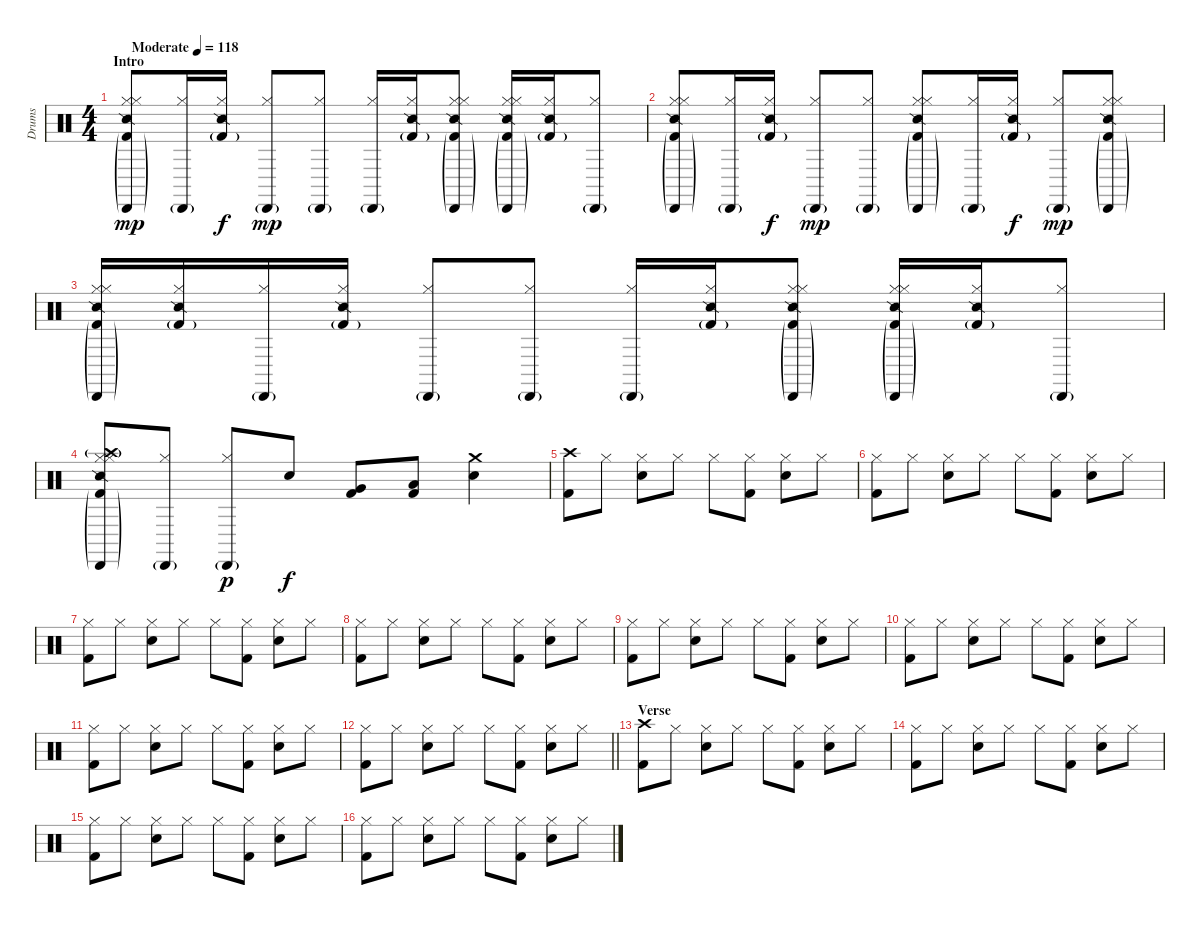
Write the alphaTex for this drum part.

\track ("Drums" "Drums") {instrument percussion}
\staff {score}
\articulation defaults
\ts (4 4)
\section ("" "Intro")
\tempo (118 "Moderate")
\clef neutral
\ks c
("Hi-Hat (closed)" "Cabasa (hit)"{g} "Kick (hit) 2"{g} "Hi-Hat (closed)" "Snare (side stick) 2").8{dy mp} ("Hi-Hat (closed)" "Cabasa (hit)"{g}).16 ("Kick (hit) 2"{g} "Hi-Hat (closed)" "Snare (side stick) 2").16{dy f} ("Hi-Hat (closed)" "Cabasa (hit)"{g}).8{dy mp} ("Hi-Hat (closed)" "Cabasa (hit)"{g}).8 ("Hi-Hat (closed)" "Cabasa (hit)"{g}).16 ("Kick (hit) 2"{g} "Hi-Hat (closed)" "Snare (side stick) 2").16 ("Hi-Hat (closed)" "Cabasa (hit)"{g} "Kick (hit) 2"{g} "Hi-Hat (closed)" "Snare (side stick) 2").8 ("Hi-Hat (closed)" "Cabasa (hit)"{g} "Kick (hit) 2"{g} "Hi-Hat (closed)" "Snare (side stick) 2").16 ("Kick (hit) 2"{g} "Hi-Hat (closed)" "Snare (side stick) 2").16 ("Hi-Hat (closed)" "Cabasa (hit)"{g}).8 |
("Hi-Hat (closed)" "Cabasa (hit)"{g} "Kick (hit) 2"{g} "Hi-Hat (closed)" "Snare (side stick) 2").8 ("Hi-Hat (closed)" "Cabasa (hit)"{g}).16 ("Kick (hit) 2"{g} "Hi-Hat (closed)" "Snare (side stick) 2").16{dy f} ("Hi-Hat (closed)" "Cabasa (hit)"{g}).8{dy mp} ("Hi-Hat (closed)" "Cabasa (hit)"{g}).8 ("Hi-Hat (closed)" "Cabasa (hit)"{g} "Kick (hit) 2"{g} "Hi-Hat (closed)" "Snare (side stick) 2").8 ("Hi-Hat (closed)" "Cabasa (hit)"{g}).16 ("Kick (hit) 2"{g} "Hi-Hat (closed)" "Snare (side stick) 2").16{dy f} ("Hi-Hat (closed)" "Cabasa (hit)"{g}).8{dy mp} ("Hi-Hat (closed)" "Cabasa (hit)"{g} "Kick (hit) 2"{g} "Hi-Hat (closed)" "Snare (side stick) 2").8 |
("Hi-Hat (closed)" "Cabasa (hit)"{g} "Kick (hit) 2"{g} "Hi-Hat (closed)" "Snare (side stick) 2").16 ("Kick (hit) 2"{g} "Hi-Hat (closed)" "Snare (side stick) 2").16 ("Hi-Hat (closed)" "Cabasa (hit)"{g}).16 ("Kick (hit) 2"{g} "Hi-Hat (closed)" "Snare (side stick) 2").16 ("Hi-Hat (closed)" "Cabasa (hit)"{g}).8 ("Hi-Hat (closed)" "Cabasa (hit)"{g}).8 ("Hi-Hat (closed)" "Cabasa (hit)"{g}).16 ("Kick (hit) 2"{g} "Hi-Hat (closed)" "Snare (side stick) 2").16 ("Hi-Hat (closed)" "Cabasa (hit)"{g} "Kick (hit) 2"{g} "Hi-Hat (closed)" "Snare (side stick) 2").8 ("Hi-Hat (closed)" "Cabasa (hit)"{g} "Kick (hit) 2"{g} "Hi-Hat (closed)" "Snare (side stick) 2").16 ("Kick (hit) 2"{g} "Hi-Hat (closed)" "Snare (side stick) 2").16 ("Hi-Hat (closed)" "Cabasa (hit)"{g}).8 |
("Crash high (hit)"{g} "Hi-Hat (closed)" "Cabasa (hit)"{g} "Kick (hit) 2"{g} "Hi-Hat (closed)" "Snare (side stick) 2").8 ("Hi-Hat (closed)" "Cabasa (hit)"{g}).8 ("Hi-Hat (closed)" "Cabasa (hit)"{g}).8{dy p} "Electric Snare (hit)".8{dy f} ("Very Low Tom (hit)" "Kick (hit) 2").8 ("Low Floor Tom (hit)" "Kick (hit) 2").8 ("Crash medium (hit)" "Electric Snare (hit)").4 |
("Crash high (hit)" "Kick (hit) 2").8 "Hi-Hat (closed)".8 ("Hi-Hat (closed)" "Electric Snare (hit)").8 "Hi-Hat (closed)".8 "Hi-Hat (closed)".8 ("Hi-Hat (closed)" "Kick (hit) 2").8 ("Hi-Hat (closed)" "Electric Snare (hit)").8 "Hi-Hat (closed)".8 |
("Hi-Hat (closed)" "Kick (hit) 2").8 "Hi-Hat (closed)".8 ("Hi-Hat (closed)" "Electric Snare (hit)").8 "Hi-Hat (closed)".8 "Hi-Hat (closed)".8 ("Hi-Hat (closed)" "Kick (hit) 2").8 ("Hi-Hat (closed)" "Electric Snare (hit)").8 "Hi-Hat (closed)".8 |
("Hi-Hat (closed)" "Kick (hit) 2").8 "Hi-Hat (closed)".8 ("Hi-Hat (closed)" "Electric Snare (hit)").8 "Hi-Hat (closed)".8 "Hi-Hat (closed)".8 ("Hi-Hat (closed)" "Kick (hit) 2").8 ("Hi-Hat (closed)" "Electric Snare (hit)").8 "Hi-Hat (closed)".8 |
("Hi-Hat (closed)" "Kick (hit) 2").8 "Hi-Hat (closed)".8 ("Hi-Hat (closed)" "Electric Snare (hit)").8 "Hi-Hat (closed)".8 "Hi-Hat (closed)".8 ("Hi-Hat (closed)" "Kick (hit) 2").8 ("Hi-Hat (closed)" "Electric Snare (hit)").8 "Hi-Hat (closed)".8 |
("Hi-Hat (closed)" "Kick (hit) 2").8 "Hi-Hat (closed)".8 ("Hi-Hat (closed)" "Electric Snare (hit)").8 "Hi-Hat (closed)".8 "Hi-Hat (closed)".8 ("Hi-Hat (closed)" "Kick (hit) 2").8 ("Hi-Hat (closed)" "Electric Snare (hit)").8 "Hi-Hat (closed)".8 |
("Hi-Hat (closed)" "Kick (hit) 2").8 "Hi-Hat (closed)".8 ("Hi-Hat (closed)" "Electric Snare (hit)").8 "Hi-Hat (closed)".8 "Hi-Hat (closed)".8 ("Hi-Hat (closed)" "Kick (hit) 2").8 ("Hi-Hat (closed)" "Electric Snare (hit)").8 "Hi-Hat (closed)".8 |
("Hi-Hat (closed)" "Kick (hit) 2").8 "Hi-Hat (closed)".8 ("Hi-Hat (closed)" "Electric Snare (hit)").8 "Hi-Hat (closed)".8 "Hi-Hat (closed)".8 ("Hi-Hat (closed)" "Kick (hit) 2").8 ("Hi-Hat (closed)" "Electric Snare (hit)").8 "Hi-Hat (closed)".8 |
\barLineRight lightlight
("Hi-Hat (closed)" "Kick (hit) 2").8 "Hi-Hat (closed)".8 ("Hi-Hat (closed)" "Electric Snare (hit)").8 "Hi-Hat (closed)".8 "Hi-Hat (closed)".8 ("Hi-Hat (closed)" "Kick (hit) 2").8 ("Hi-Hat (closed)" "Electric Snare (hit)").8 "Hi-Hat (closed)".8 |
\section ("" "Verse")
("Crash high (hit)" "Kick (hit) 2").8 "Hi-Hat (closed)".8 ("Hi-Hat (closed)" "Electric Snare (hit)").8 "Hi-Hat (closed)".8 "Hi-Hat (closed)".8 ("Hi-Hat (closed)" "Kick (hit) 2").8 ("Hi-Hat (closed)" "Electric Snare (hit)").8 "Hi-Hat (closed)".8 |
("Hi-Hat (closed)" "Kick (hit) 2").8 "Hi-Hat (closed)".8 ("Hi-Hat (closed)" "Electric Snare (hit)").8 "Hi-Hat (closed)".8 "Hi-Hat (closed)".8 ("Hi-Hat (closed)" "Kick (hit) 2").8 ("Hi-Hat (closed)" "Electric Snare (hit)").8 "Hi-Hat (closed)".8 |
("Hi-Hat (closed)" "Kick (hit) 2").8 "Hi-Hat (closed)".8 ("Hi-Hat (closed)" "Electric Snare (hit)").8 "Hi-Hat (closed)".8 "Hi-Hat (closed)".8 ("Hi-Hat (closed)" "Kick (hit) 2").8 ("Hi-Hat (closed)" "Electric Snare (hit)").8 "Hi-Hat (closed)".8 |
("Hi-Hat (closed)" "Kick (hit) 2").8 "Hi-Hat (closed)".8 ("Hi-Hat (closed)" "Electric Snare (hit)").8 "Hi-Hat (closed)".8 "Hi-Hat (closed)".8 ("Hi-Hat (closed)" "Kick (hit) 2").8 ("Hi-Hat (closed)" "Electric Snare (hit)").8 "Hi-Hat (closed)".8
